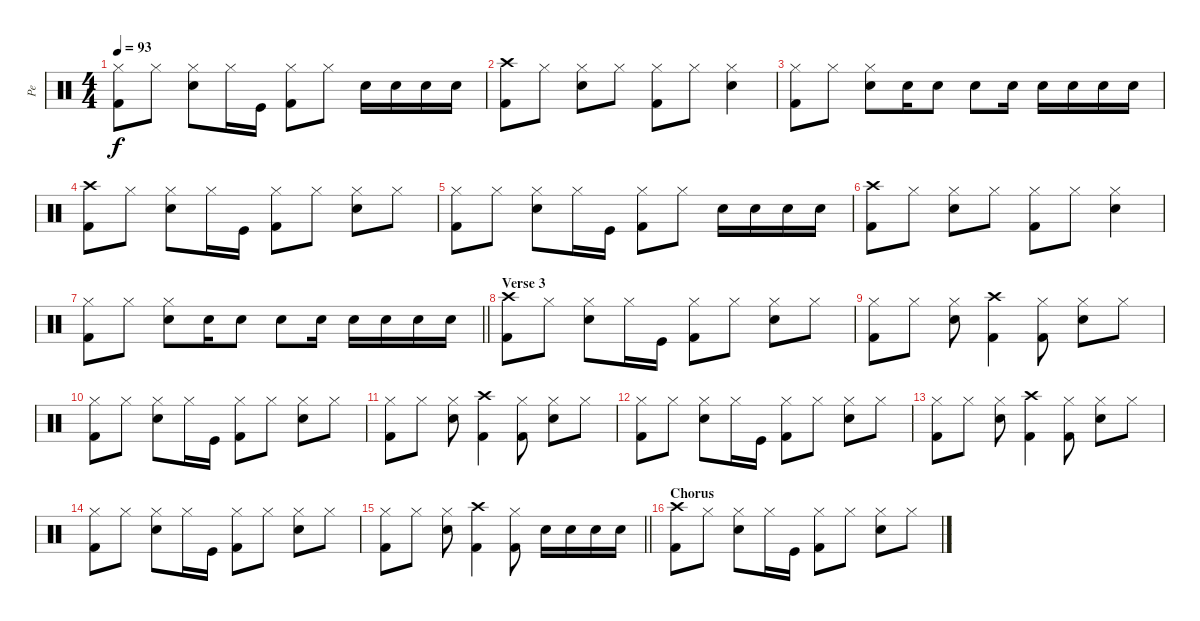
\track ("Pe" "Pe") {instrument percussion}
\staff {score}
\articulation defaults
\ts (4 4)
\tempo 93
\clef neutral
\ks c
("Kick (hit) 2" "Hi-Hat (closed)").8{dy f} "Hi-Hat (closed)".8 ("Electric Snare (hit)" "Hi-Hat (closed)").8 "Hi-Hat (closed)".16 "Kick (hit)".16 ("Kick (hit) 2" "Hi-Hat (closed)").8 "Hi-Hat (closed)".8 "Electric Snare (hit)".16 "Electric Snare (hit)".16 "Electric Snare (hit)".16 "Electric Snare (hit)".16 |
("Kick (hit) 2" "Crash high (hit)").8 "Hi-Hat (closed)".8 ("Electric Snare (hit)" "Hi-Hat (closed)").8 "Hi-Hat (closed)".8 ("Kick (hit) 2" "Hi-Hat (closed)").8 "Hi-Hat (closed)".8 ("Electric Snare (hit)" "Hi-Hat (closed)").4 |
("Kick (hit) 2" "Hi-Hat (closed)").8 "Hi-Hat (closed)".8 ("Electric Snare (hit)" "Hi-Hat (closed)").8 "Electric Snare (hit)".16 "Electric Snare (hit)".8 "Electric Snare (hit)".8 "Electric Snare (hit)".16 "Electric Snare (hit)".16 "Electric Snare (hit)".16 "Electric Snare (hit)".16 "Electric Snare (hit)".16 |
("Kick (hit) 2" "Crash high (hit)").8 "Hi-Hat (closed)".8 ("Electric Snare (hit)" "Hi-Hat (closed)").8 "Hi-Hat (closed)".16 "Kick (hit)".16 ("Kick (hit) 2" "Hi-Hat (closed)").8 "Hi-Hat (closed)".8 ("Electric Snare (hit)" "Hi-Hat (closed)").8 "Hi-Hat (closed)".8 |
("Kick (hit) 2" "Hi-Hat (closed)").8 "Hi-Hat (closed)".8 ("Electric Snare (hit)" "Hi-Hat (closed)").8 "Hi-Hat (closed)".16 "Kick (hit)".16 ("Kick (hit) 2" "Hi-Hat (closed)").8 "Hi-Hat (closed)".8 "Electric Snare (hit)".16 "Electric Snare (hit)".16 "Electric Snare (hit)".16 "Electric Snare (hit)".16 |
("Kick (hit) 2" "Crash high (hit)").8 "Hi-Hat (closed)".8 ("Electric Snare (hit)" "Hi-Hat (closed)").8 "Hi-Hat (closed)".8 ("Kick (hit) 2" "Hi-Hat (closed)").8 "Hi-Hat (closed)".8 ("Electric Snare (hit)" "Hi-Hat (closed)").4 |
\barLineRight lightlight
("Kick (hit) 2" "Hi-Hat (closed)").8 "Hi-Hat (closed)".8 ("Electric Snare (hit)" "Hi-Hat (closed)").8 "Electric Snare (hit)".16 "Electric Snare (hit)".8 "Electric Snare (hit)".8 "Electric Snare (hit)".16 "Electric Snare (hit)".16 "Electric Snare (hit)".16 "Electric Snare (hit)".16 "Electric Snare (hit)".16 |
\section ("" "Verse 3")
("Kick (hit) 2" "Crash high (hit)").8 "Hi-Hat (closed)".8 ("Electric Snare (hit)" "Hi-Hat (closed)").8 "Hi-Hat (closed)".16 "Kick (hit)".16 ("Kick (hit) 2" "Hi-Hat (closed)").8 "Hi-Hat (closed)".8 ("Electric Snare (hit)" "Hi-Hat (closed)").8 "Hi-Hat (closed)".8 |
("Kick (hit) 2" "Hi-Hat (closed)").8 "Hi-Hat (closed)".8 ("Electric Snare (hit)" "Hi-Hat (closed)").8 ("Kick (hit) 2" "Crash high (hit)").4 ("Kick (hit) 2" "Hi-Hat (closed)").8 ("Electric Snare (hit)" "Hi-Hat (closed)").8 "Hi-Hat (closed)".8 |
("Kick (hit) 2" "Hi-Hat (closed)").8 "Hi-Hat (closed)".8 ("Electric Snare (hit)" "Hi-Hat (closed)").8 "Hi-Hat (closed)".16 "Kick (hit)".16 ("Kick (hit) 2" "Hi-Hat (closed)").8 "Hi-Hat (closed)".8 ("Electric Snare (hit)" "Hi-Hat (closed)").8 "Hi-Hat (closed)".8 |
("Kick (hit) 2" "Hi-Hat (closed)").8 "Hi-Hat (closed)".8 ("Electric Snare (hit)" "Hi-Hat (closed)").8 ("Kick (hit) 2" "Crash high (hit)").4 ("Kick (hit) 2" "Hi-Hat (closed)").8 ("Electric Snare (hit)" "Hi-Hat (closed)").8 "Hi-Hat (closed)".8 |
("Kick (hit) 2" "Hi-Hat (closed)").8 "Hi-Hat (closed)".8 ("Electric Snare (hit)" "Hi-Hat (closed)").8 "Hi-Hat (closed)".16 "Kick (hit)".16 ("Kick (hit) 2" "Hi-Hat (closed)").8 "Hi-Hat (closed)".8 ("Electric Snare (hit)" "Hi-Hat (closed)").8 "Hi-Hat (closed)".8 |
("Kick (hit) 2" "Hi-Hat (closed)").8 "Hi-Hat (closed)".8 ("Electric Snare (hit)" "Hi-Hat (closed)").8 ("Kick (hit) 2" "Crash high (hit)").4 ("Kick (hit) 2" "Hi-Hat (closed)").8 ("Electric Snare (hit)" "Hi-Hat (closed)").8 "Hi-Hat (closed)".8 |
("Kick (hit) 2" "Hi-Hat (closed)").8 "Hi-Hat (closed)".8 ("Electric Snare (hit)" "Hi-Hat (closed)").8 "Hi-Hat (closed)".16 "Kick (hit)".16 ("Kick (hit) 2" "Hi-Hat (closed)").8 "Hi-Hat (closed)".8 ("Electric Snare (hit)" "Hi-Hat (closed)").8 "Hi-Hat (closed)".8 |
\barLineRight lightlight
("Kick (hit) 2" "Hi-Hat (closed)").8 "Hi-Hat (closed)".8 ("Electric Snare (hit)" "Hi-Hat (closed)").8 ("Kick (hit) 2" "Crash high (hit)").4 ("Kick (hit) 2" "Hi-Hat (closed)").8 "Electric Snare (hit)".16 "Electric Snare (hit)".16 "Electric Snare (hit)".16 "Electric Snare (hit)".16 |
\section ("" "Chorus")
("Kick (hit) 2" "Crash high (hit)").8 "Hi-Hat (closed)".8 ("Electric Snare (hit)" "Hi-Hat (closed)").8 "Hi-Hat (closed)".16 "Kick (hit)".16 ("Kick (hit) 2" "Hi-Hat (closed)").8 "Hi-Hat (closed)".8 ("Electric Snare (hit)" "Hi-Hat (closed)").8 "Hi-Hat (closed)".8
